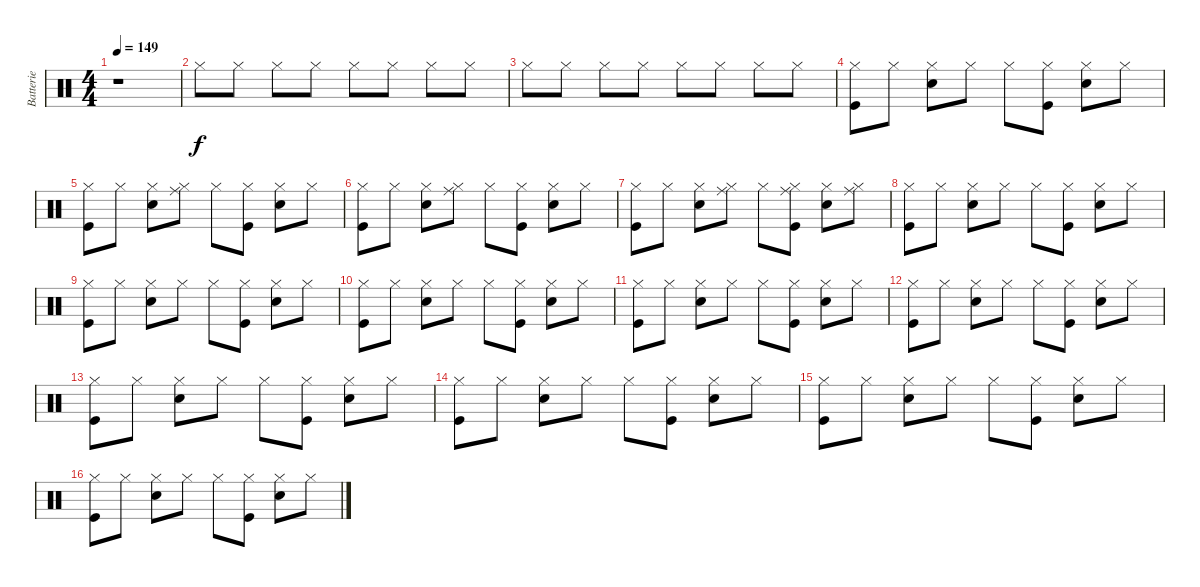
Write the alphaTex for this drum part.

\track ("Batterie" "Batterie") {instrument percussion}
\staff {score}
\articulation defaults
\ts (4 4)
\tempo 149
\clef neutral
\ks c
r.1{dy f} |
"Hi-Hat (closed)".8 "Hi-Hat (closed)".8 "Hi-Hat (closed)".8 "Hi-Hat (closed)".8 "Hi-Hat (closed)".8 "Hi-Hat (closed)".8 "Hi-Hat (closed)".8 "Hi-Hat (closed)".8 |
"Hi-Hat (closed)".8 "Hi-Hat (closed)".8 "Hi-Hat (closed)".8 "Hi-Hat (closed)".8 "Hi-Hat (closed)".8 "Hi-Hat (closed)".8 "Hi-Hat (closed)".8 "Hi-Hat (closed)".8 |
("Hi-Hat (closed)" "Kick (hit)").8 "Hi-Hat (closed)".8 ("Hi-Hat (closed)" "Snare (hit) 2").8 "Hi-Hat (closed)".8 "Hi-Hat (closed)".8 ("Hi-Hat (closed)" "Kick (hit)").8 ("Hi-Hat (closed)" "Snare (hit) 2").8 "Hi-Hat (closed)".8 |
("Hi-Hat (closed)" "Kick (hit)").8 "Hi-Hat (closed)".8 ("Hi-Hat (closed)" "Snare (hit) 2").8 ("Hi-Hat (closed)" "Ride (middle)").8 "Hi-Hat (closed)".8 ("Hi-Hat (closed)" "Kick (hit)").8 ("Hi-Hat (closed)" "Snare (hit) 2").8 "Hi-Hat (closed)".8 |
("Hi-Hat (closed)" "Kick (hit)").8 "Hi-Hat (closed)".8 ("Hi-Hat (closed)" "Snare (hit) 2").8 ("Hi-Hat (closed)" "Ride (middle)").8 "Hi-Hat (closed)".8 ("Hi-Hat (closed)" "Kick (hit)").8 ("Hi-Hat (closed)" "Snare (hit) 2").8 "Hi-Hat (closed)".8 |
("Hi-Hat (closed)" "Kick (hit)").8 "Hi-Hat (closed)".8 ("Hi-Hat (closed)" "Snare (hit) 2").8 ("Hi-Hat (closed)" "Ride (middle)").8 "Hi-Hat (closed)".8 ("Hi-Hat (closed)" "Kick (hit)" "Ride (middle)").8 ("Hi-Hat (closed)" "Snare (hit) 2").8 ("Hi-Hat (closed)" "Ride (middle)").8 |
("Hi-Hat (closed)" "Kick (hit)").8 "Hi-Hat (closed)".8 ("Hi-Hat (closed)" "Snare (hit) 2").8 "Hi-Hat (closed)".8 "Hi-Hat (closed)".8 ("Hi-Hat (closed)" "Kick (hit)").8 ("Hi-Hat (closed)" "Snare (hit) 2").8 "Hi-Hat (closed)".8 |
("Hi-Hat (closed)" "Kick (hit)").8 "Hi-Hat (closed)".8 ("Hi-Hat (closed)" "Snare (hit) 2").8 "Hi-Hat (closed)".8 "Hi-Hat (closed)".8 ("Hi-Hat (closed)" "Kick (hit)").8 ("Hi-Hat (closed)" "Snare (hit) 2").8 "Hi-Hat (closed)".8 |
("Hi-Hat (closed)" "Kick (hit)").8 "Hi-Hat (closed)".8 ("Hi-Hat (closed)" "Snare (hit) 2").8 "Hi-Hat (closed)".8 "Hi-Hat (closed)".8 ("Hi-Hat (closed)" "Kick (hit)").8 ("Hi-Hat (closed)" "Snare (hit) 2").8 "Hi-Hat (closed)".8 |
("Hi-Hat (closed)" "Kick (hit)").8 "Hi-Hat (closed)".8 ("Hi-Hat (closed)" "Snare (hit) 2").8 "Hi-Hat (closed)".8 "Hi-Hat (closed)".8 ("Hi-Hat (closed)" "Kick (hit)").8 ("Hi-Hat (closed)" "Snare (hit) 2").8 "Hi-Hat (closed)".8 |
("Hi-Hat (closed)" "Kick (hit)").8 "Hi-Hat (closed)".8 ("Hi-Hat (closed)" "Snare (hit) 2").8 "Hi-Hat (closed)".8 "Hi-Hat (closed)".8 ("Hi-Hat (closed)" "Kick (hit)").8 ("Hi-Hat (closed)" "Snare (hit) 2").8 "Hi-Hat (closed)".8 |
("Hi-Hat (closed)" "Kick (hit)").8 "Hi-Hat (closed)".8 ("Hi-Hat (closed)" "Snare (hit) 2").8 "Hi-Hat (closed)".8 "Hi-Hat (closed)".8 ("Hi-Hat (closed)" "Kick (hit)").8 ("Hi-Hat (closed)" "Snare (hit) 2").8 "Hi-Hat (closed)".8 |
("Hi-Hat (closed)" "Kick (hit)").8 "Hi-Hat (closed)".8 ("Hi-Hat (closed)" "Snare (hit) 2").8 "Hi-Hat (closed)".8 "Hi-Hat (closed)".8 ("Hi-Hat (closed)" "Kick (hit)").8 ("Hi-Hat (closed)" "Snare (hit) 2").8 "Hi-Hat (closed)".8 |
("Hi-Hat (closed)" "Kick (hit)").8 "Hi-Hat (closed)".8 ("Hi-Hat (closed)" "Snare (hit) 2").8 "Hi-Hat (closed)".8 "Hi-Hat (closed)".8 ("Hi-Hat (closed)" "Kick (hit)").8 ("Hi-Hat (closed)" "Snare (hit) 2").8 "Hi-Hat (closed)".8 |
("Hi-Hat (closed)" "Kick (hit)").8 "Hi-Hat (closed)".8 ("Hi-Hat (closed)" "Snare (hit) 2").8 "Hi-Hat (closed)".8 "Hi-Hat (closed)".8 ("Hi-Hat (closed)" "Kick (hit)").8 ("Hi-Hat (closed)" "Snare (hit) 2").8 "Hi-Hat (closed)".8
